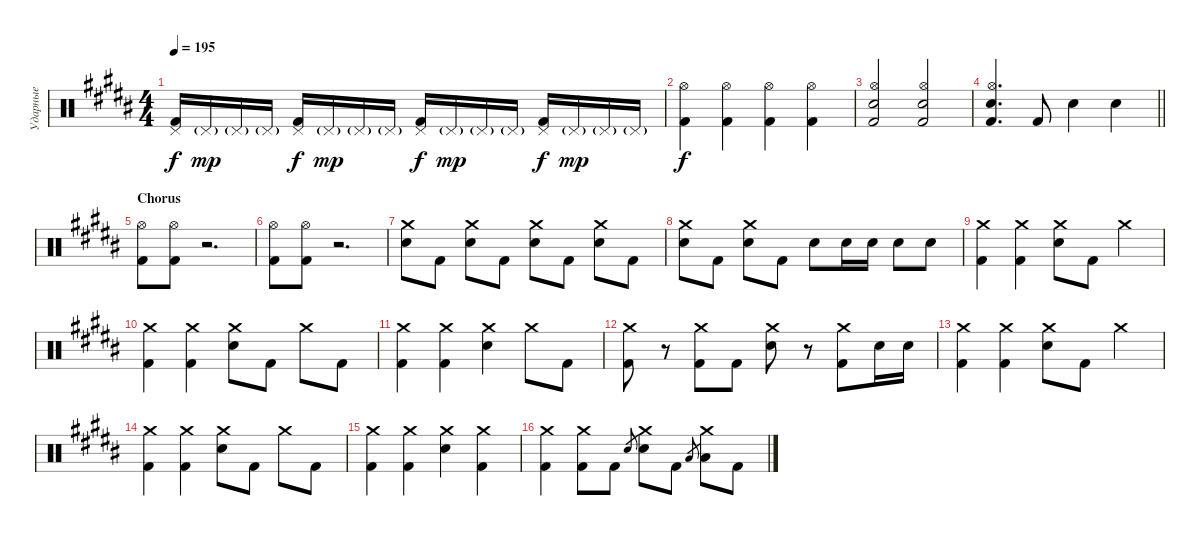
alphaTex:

\track ("Ударные" "Ударные") {instrument percussion}
\staff {score}
\articulation defaults
\ts (4 4)
\tempo 195
\clef neutral
\ks b
("Pedal Hi-Hat (hit)" "Kick (hit) 2").16{dy f} "Pedal Hi-Hat (hit)"{g}.16{dy mp} "Pedal Hi-Hat (hit)"{g}.16 "Pedal Hi-Hat (hit)"{g}.16 ("Pedal Hi-Hat (hit)" "Kick (hit) 2").16{dy f} "Pedal Hi-Hat (hit)"{g}.16{dy mp} "Pedal Hi-Hat (hit)"{g}.16 "Pedal Hi-Hat (hit)"{g}.16 ("Pedal Hi-Hat (hit)" "Kick (hit) 2").16{dy f} "Pedal Hi-Hat (hit)"{g}.16{dy mp} "Pedal Hi-Hat (hit)"{g}.16 "Pedal Hi-Hat (hit)"{g}.16 ("Pedal Hi-Hat (hit)" "Kick (hit) 2").16{dy f} "Pedal Hi-Hat (hit)"{g}.16{dy mp} "Pedal Hi-Hat (hit)"{g}.16 "Pedal Hi-Hat (hit)"{g}.16 |
("Hi-Hat (open)" "Kick (hit) 2").4{dy f} ("Hi-Hat (open)" "Kick (hit) 2").4 ("Hi-Hat (open)" "Kick (hit) 2").4 ("Hi-Hat (open)" "Kick (hit) 2").4 |
("Hi-Hat (open)" "Electric Snare (hit)" "Kick (hit) 2").2 ("Hi-Hat (open)" "Electric Snare (hit)" "Kick (hit) 2").2 |
\barLineRight lightlight
("Hi-Hat (open)" "Electric Snare (hit)" "Kick (hit) 2").4{d} "Kick (hit) 2".8 "Electric Snare (hit)".4 "Electric Snare (hit)".4 |
\section ("" "Chorus")
("Hi-Hat (open)" "Kick (hit) 2").8 ("Hi-Hat (open)" "Kick (hit) 2").8 r.2{d} |
("Hi-Hat (open)" "Kick (hit) 2").8 ("Hi-Hat (open)" "Kick (hit) 2").8 r.2{d} |
("Crash medium (hit)" "Electric Snare (hit)").8 "Kick (hit) 2".8 ("Crash medium (hit)" "Electric Snare (hit)").8 "Kick (hit) 2".8 ("Crash medium (hit)" "Electric Snare (hit)").8 "Kick (hit) 2".8 ("Crash medium (hit)" "Electric Snare (hit)").8 "Kick (hit) 2".8 |
("Crash medium (hit)" "Electric Snare (hit)").8 "Kick (hit) 2".8 ("Crash medium (hit)" "Electric Snare (hit)").8 "Kick (hit) 2".8 "Electric Snare (hit)".8 "Electric Snare (hit)".16 "Electric Snare (hit)".16 "Electric Snare (hit)".8 "Electric Snare (hit)".8 |
("Crash medium (hit)" "Kick (hit) 2").4 ("Crash medium (hit)" "Kick (hit) 2").4 ("Crash medium (hit)" "Electric Snare (hit)").8 "Kick (hit) 2".8 "Crash medium (hit)".4 |
("Crash medium (hit)" "Kick (hit) 2").4 ("Crash medium (hit)" "Kick (hit) 2").4 ("Crash medium (hit)" "Electric Snare (hit)").8 "Kick (hit) 2".8 "Crash medium (hit)".8 "Kick (hit) 2".8 |
("Crash medium (hit)" "Kick (hit) 2").4 ("Crash medium (hit)" "Kick (hit) 2").4 ("Crash medium (hit)" "Electric Snare (hit)").4 "Crash medium (hit)".8 "Kick (hit) 2".8 |
("Crash medium (hit)" "Kick (hit) 2").8 r.8 ("Crash medium (hit)" "Kick (hit) 2").8 "Kick (hit) 2".8 ("Crash medium (hit)" "Electric Snare (hit)").8 r.8 ("Crash medium (hit)" "Kick (hit) 2").8 "Electric Snare (hit)".16 "Electric Snare (hit)".16 |
("Crash medium (hit)" "Kick (hit) 2").4 ("Crash medium (hit)" "Kick (hit) 2").4 ("Crash medium (hit)" "Electric Snare (hit)").8 "Kick (hit) 2".8 "Crash medium (hit)".4 |
("Crash medium (hit)" "Kick (hit) 2").4 ("Crash medium (hit)" "Kick (hit) 2").4 ("Crash medium (hit)" "Electric Snare (hit)").8 "Kick (hit) 2".8 "Crash medium (hit)".8 "Kick (hit) 2".8 |
("Crash medium (hit)" "Kick (hit) 2").4 ("Crash medium (hit)" "Kick (hit) 2").4 ("Crash medium (hit)" "Electric Snare (hit)").4 ("Crash medium (hit)" "Kick (hit) 2").4 |
("Crash medium (hit)" "Kick (hit) 2").4 ("Crash medium (hit)" "Kick (hit) 2").8 "Kick (hit) 2".8 "Electric Snare (hit)".8{gr} ("Crash medium (hit)" "Electric Snare (hit)").8 "Kick (hit) 2".8 "Low Tom (hit)".8{gr} ("Crash medium (hit)" "Low Tom (hit)").8 "Kick (hit) 2".8
